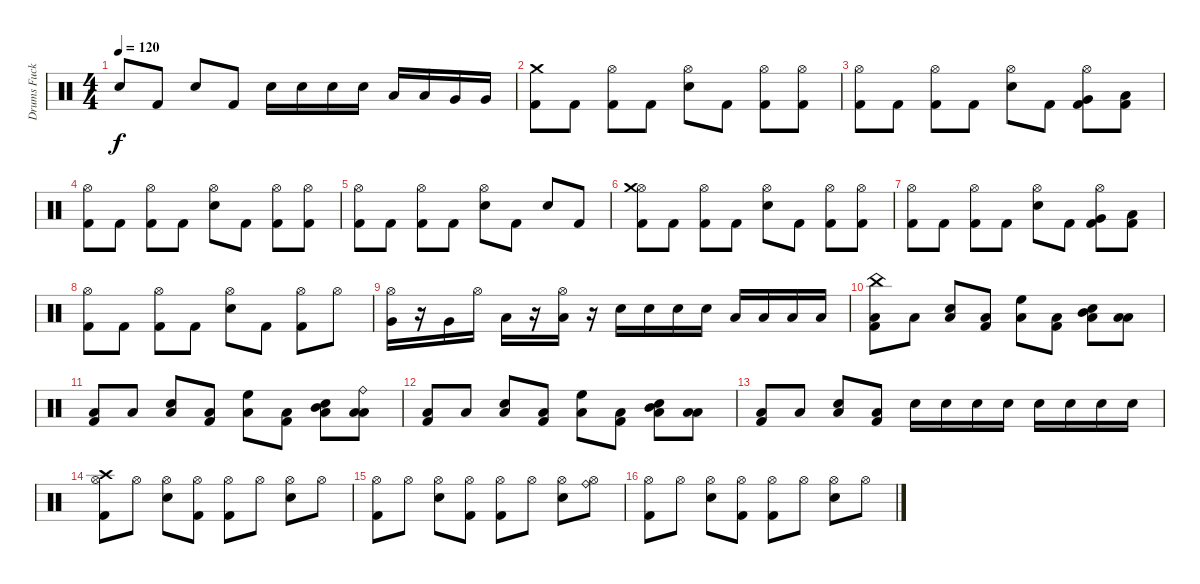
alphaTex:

\track ("Drums Fucker" "Drums Fuck") {instrument percussion}
\staff {score}
\articulation defaults
\ts (4 4)
\tempo 120
\clef neutral
\ks c "Snare (hit) 2".8{dy f} "Kick (hit) 2".8 "Snare (hit) 2".8 "Kick (hit) 2".8 "Snare (hit) 2".16 "Snare (hit) 2".16 "Snare (hit) 2".16 "Snare (hit) 2".16 "Low Tom (hit)".16 "Low Tom (hit)".16 "Very Low Tom (hit)".16 "Very Low Tom (hit)".16
|
("Crash medium (hit)" "Kick (hit) 2").8 "Kick (hit) 2".8 ("Hi-Hat (open)" "Kick (hit) 2").8 "Kick (hit) 2".8 ("Hi-Hat (open)" "Snare (hit) 2").8 "Kick (hit) 2".8 ("Hi-Hat (open)" "Kick (hit) 2").8 ("Hi-Hat (open)" "Kick (hit) 2").8 |
("Hi-Hat (open)" "Kick (hit) 2").8 "Kick (hit) 2".8 ("Hi-Hat (open)" "Kick (hit) 2").8 "Kick (hit) 2".8 ("Hi-Hat (open)" "Snare (hit) 2").8 "Kick (hit) 2".8 ("Hi-Hat (open)" "Very Low Tom (hit)" "Kick (hit) 2").8 ("Low Floor Tom (hit)" "Kick (hit) 2").8 |
("Hi-Hat (open)" "Kick (hit) 2").8 "Kick (hit) 2".8 ("Hi-Hat (open)" "Kick (hit) 2").8 "Kick (hit) 2".8 ("Hi-Hat (open)" "Snare (hit) 2").8 "Kick (hit) 2".8 ("Hi-Hat (open)" "Kick (hit) 2").8 ("Hi-Hat (open)" "Kick (hit) 2").8 |
("Hi-Hat (open)" "Kick (hit) 2").8 "Kick (hit) 2".8 ("Hi-Hat (open)" "Kick (hit) 2").8 "Kick (hit) 2".8 ("Hi-Hat (open)" "Snare (hit) 2").8 "Kick (hit) 2".8 "Snare (hit) 2".8 "Kick (hit) 2".8 |
("Hi-Hat (open)" "Crash medium (hit)" "Kick (hit) 2").8 "Kick (hit) 2".8 ("Hi-Hat (open)" "Kick (hit) 2").8 "Kick (hit) 2".8 ("Hi-Hat (open)" "Snare (hit) 2").8 "Kick (hit) 2".8 ("Hi-Hat (open)" "Kick (hit) 2").8 ("Hi-Hat (open)" "Kick (hit) 2").8 |
("Hi-Hat (open)" "Kick (hit) 2").8 "Kick (hit) 2".8 ("Hi-Hat (open)" "Kick (hit) 2").8 "Kick (hit) 2".8 ("Hi-Hat (open)" "Snare (hit) 2").8 "Kick (hit) 2".8 ("Hi-Hat (open)" "Very Low Tom (hit)" "Kick (hit) 2").8 ("Low Floor Tom (hit)" "Kick (hit) 2").8 |
("Hi-Hat (open)" "Kick (hit) 2").8 "Kick (hit) 2".8 ("Hi-Hat (open)" "Kick (hit) 2").8 "Kick (hit) 2".8 ("Hi-Hat (open)" "Snare (hit) 2").8 "Kick (hit) 2".8 ("Hi-Hat (open)" "Kick (hit) 2").8 "Hi-Hat (open)".8 |
("Hi-Hat (open)" "Very Low Tom (hit)").16 r.16 "Very Low Tom (hit)".16 "Hi-Hat (open)".16 "Low Floor Tom (hit)".16 r.16 ("Hi-Hat (open)" "Low Floor Tom (hit)").16 r.16 "Snare (hit) 2".16 "Snare (hit) 2".16 "Snare (hit) 2".16 "Snare (hit) 2".16 "Low Tom (hit)".16 "Low Tom (hit)".16 "Low Floor Tom (hit)".16 "Low Floor Tom (hit)".16 |
("China (hit)" "Kick (hit) 2" "Low Floor Tom (hit)").8 "Low Floor Tom (hit)".8 ("Snare (hit) 2" "Low Floor Tom (hit)").8 ("Kick (hit) 2" "Low Floor Tom (hit)").8 ("High Floor Tom (hit)" "Low Floor Tom (hit)").8 ("Kick (hit) 2" "Low Floor Tom (hit)").8 ("Mid Tom (hit)" "Snare (hit) 2" "Low Floor Tom (hit)").8 ("Low Tom (hit)" "Low Floor Tom (hit)").8 |
("Kick (hit) 2" "Low Floor Tom (hit)").8 "Low Floor Tom (hit)".8 ("Snare (hit) 2" "Low Floor Tom (hit)").8 ("Kick (hit) 2" "Low Floor Tom (hit)").8 ("High Floor Tom (hit)" "Low Floor Tom (hit)").8 ("Kick (hit) 2" "Low Floor Tom (hit)").8 ("Mid Tom (hit)" "Snare (hit) 2" "Low Floor Tom (hit)").8 ("Ride (bell)" "Low Tom (hit)" "Low Floor Tom (hit)").8 |
("Kick (hit) 2" "Low Floor Tom (hit)").8 "Low Floor Tom (hit)".8 ("Snare (hit) 2" "Low Floor Tom (hit)").8 ("Kick (hit) 2" "Low Floor Tom (hit)").8 ("High Floor Tom (hit)" "Low Floor Tom (hit)").8 ("Kick (hit) 2" "Low Floor Tom (hit)").8 ("Mid Tom (hit)" "Snare (hit) 2" "Low Floor Tom (hit)").8 ("Low Tom (hit)" "Low Floor Tom (hit)").8 |
("Kick (hit) 2" "Low Floor Tom (hit)").8 "Low Floor Tom (hit)".8 ("Snare (hit) 2" "Low Floor Tom (hit)").8 ("Kick (hit) 2" "Low Floor Tom (hit)").8 "Snare (hit) 2".16 "Snare (hit) 2".16 "Snare (hit) 2".16 "Snare (hit) 2".16 "Snare (hit) 2".16 "Snare (hit) 2".16 "Snare (hit) 2".16 "Snare (hit) 2".16 |
("Crash high (hit)" "Kick (hit) 2" "Hi-Hat (open)").8 "Hi-Hat (open)".8 ("Snare (hit) 2" "Hi-Hat (open)").8 ("Kick (hit) 2" "Hi-Hat (open)").8 ("Kick (hit) 2" "Hi-Hat (open)").8 "Hi-Hat (open)".8 ("Snare (hit) 2" "Hi-Hat (open)").8 "Hi-Hat (open)".8 |
("Kick (hit) 2" "Hi-Hat (open)").8 "Hi-Hat (open)".8 ("Snare (hit) 2" "Hi-Hat (open)").8 ("Kick (hit) 2" "Hi-Hat (open)").8 ("Kick (hit) 2" "Hi-Hat (open)").8 "Hi-Hat (open)".8 ("Snare (hit) 2" "Hi-Hat (open)").8 ("Ride (bell)" "Hi-Hat (open)").8 |
("Kick (hit) 2" "Hi-Hat (open)").8 "Hi-Hat (open)".8 ("Snare (hit) 2" "Hi-Hat (open)").8 ("Kick (hit) 2" "Hi-Hat (open)").8 ("Kick (hit) 2" "Hi-Hat (open)").8 "Hi-Hat (open)".8 ("Snare (hit) 2" "Hi-Hat (open)").8 "Hi-Hat (open)".8
